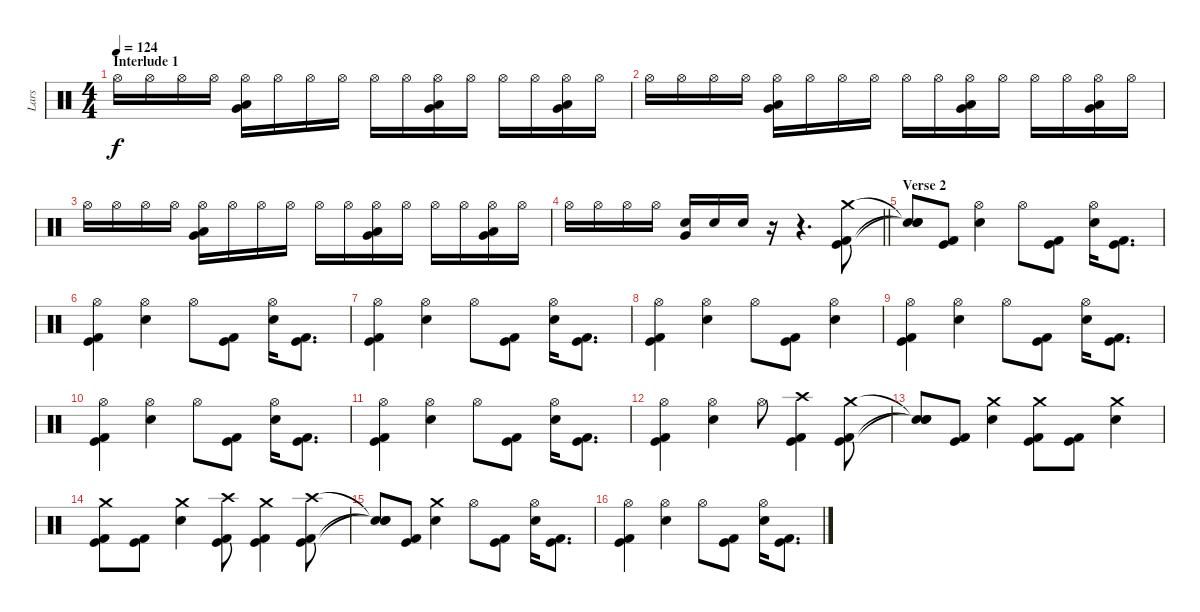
\track ("Lars" "Lars") {instrument percussion}
\staff {score}
\articulation defaults
\ts (4 4)
\section ("" "Interlude 1")
\tempo 124
\clef neutral
\ks c "Hi-Hat (open)".16{dy f} "Hi-Hat (open)".16 "Hi-Hat (open)".16 "Hi-Hat (open)".16
("Hi-Hat (open)" "Low Tom (hit)" "Very Low Tom (hit)").16 "Hi-Hat (open)".16 "Hi-Hat (open)".16 "Hi-Hat (open)".16 "Hi-Hat (open)".16 "Hi-Hat (open)".16 ("Hi-Hat (open)" "Low Tom (hit)" "Very Low Tom (hit)").16 "Hi-Hat (open)".16 "Hi-Hat (open)".16 "Hi-Hat (open)".16 ("Hi-Hat (open)" "Low Tom (hit)" "Very Low Tom (hit)").16 "Hi-Hat (open)".16 |
"Hi-Hat (open)".16 "Hi-Hat (open)".16 "Hi-Hat (open)".16 "Hi-Hat (open)".16 ("Hi-Hat (open)" "Low Tom (hit)" "Very Low Tom (hit)").16 "Hi-Hat (open)".16 "Hi-Hat (open)".16 "Hi-Hat (open)".16 "Hi-Hat (open)".16 "Hi-Hat (open)".16 ("Hi-Hat (open)" "Low Tom (hit)" "Very Low Tom (hit)").16 "Hi-Hat (open)".16 "Hi-Hat (open)".16 "Hi-Hat (open)".16 ("Hi-Hat (open)" "Low Tom (hit)" "Very Low Tom (hit)").16 "Hi-Hat (open)".16 |
"Hi-Hat (open)".16 "Hi-Hat (open)".16 "Hi-Hat (open)".16 "Hi-Hat (open)".16 ("Hi-Hat (open)" "Low Tom (hit)" "Very Low Tom (hit)").16 "Hi-Hat (open)".16 "Hi-Hat (open)".16 "Hi-Hat (open)".16 "Hi-Hat (open)".16 "Hi-Hat (open)".16 ("Hi-Hat (open)" "Low Tom (hit)" "Very Low Tom (hit)").16 "Hi-Hat (open)".16 "Hi-Hat (open)".16 "Hi-Hat (open)".16 ("Hi-Hat (open)" "Low Tom (hit)" "Very Low Tom (hit)").16 "Hi-Hat (open)".16 |
\barLineRight lightlight "Hi-Hat (open)".16 "Hi-Hat (open)".16 "Hi-Hat (open)".16 "Hi-Hat (open)".16
("Electric Snare (hit)" "Very Low Tom (hit)").16 "Electric Snare (hit)".16 "Electric Snare (hit)".16 r.16 r.4{d} ("Crash medium (hit)" "Kick (hit)" "Kick (hit) 2").8 |
\section ("" "Verse 2")
("Snare (hit)"{t} "Snare (hit)"{t} "Snare (hit)"{t}).8 ("Kick (hit)" "Kick (hit) 2").8 ("Hi-Hat (open)" "Electric Snare (hit)").4 "Hi-Hat (open)".8 ("Kick (hit)" "Kick (hit) 2").8 ("Hi-Hat (open)" "Electric Snare (hit)").16 ("Kick (hit)" "Kick (hit) 2").8{d} |
("Hi-Hat (open)" "Kick (hit)" "Kick (hit) 2").4 ("Hi-Hat (open)" "Electric Snare (hit)").4 "Hi-Hat (open)".8 ("Kick (hit)" "Kick (hit) 2").8 ("Hi-Hat (open)" "Electric Snare (hit)").16 ("Kick (hit)" "Kick (hit) 2").8{d} |
("Hi-Hat (open)" "Kick (hit)" "Kick (hit) 2").4 ("Hi-Hat (open)" "Electric Snare (hit)").4 "Hi-Hat (open)".8 ("Kick (hit)" "Kick (hit) 2").8 ("Hi-Hat (open)" "Electric Snare (hit)").16 ("Kick (hit)" "Kick (hit) 2").8{d} |
("Hi-Hat (open)" "Kick (hit)" "Kick (hit) 2").4 ("Hi-Hat (open)" "Electric Snare (hit)").4 "Hi-Hat (open)".8 ("Kick (hit)" "Kick (hit) 2").8 ("Hi-Hat (open)" "Electric Snare (hit)").4 |
("Hi-Hat (open)" "Kick (hit)" "Kick (hit) 2").4 ("Hi-Hat (open)" "Electric Snare (hit)").4 "Hi-Hat (open)".8 ("Kick (hit)" "Kick (hit) 2").8 ("Hi-Hat (open)" "Electric Snare (hit)").16 ("Kick (hit)" "Kick (hit) 2").8{d} |
("Hi-Hat (open)" "Kick (hit)" "Kick (hit) 2").4 ("Hi-Hat (open)" "Electric Snare (hit)").4 "Hi-Hat (open)".8 ("Kick (hit)" "Kick (hit) 2").8 ("Hi-Hat (open)" "Electric Snare (hit)").16 ("Kick (hit)" "Kick (hit) 2").8{d} |
("Hi-Hat (open)" "Kick (hit)" "Kick (hit) 2").4 ("Hi-Hat (open)" "Electric Snare (hit)").4 "Hi-Hat (open)".8 ("Kick (hit)" "Kick (hit) 2").8 ("Hi-Hat (open)" "Electric Snare (hit)").16 ("Kick (hit)" "Kick (hit) 2").8{d} |
("Hi-Hat (open)" "Kick (hit)" "Kick (hit) 2").4 ("Hi-Hat (open)" "Electric Snare (hit)").4 "Hi-Hat (open)".8 ("Crash high (hit)" "Kick (hit)" "Kick (hit) 2").4 ("Crash medium (hit)" "Kick (hit)" "Kick (hit) 2").8 |
("Snare (hit)"{t} "Snare (hit)"{t} "Snare (hit)"{t}).8 ("Kick (hit)" "Kick (hit) 2").8 ("Crash medium (hit)" "Electric Snare (hit)").4 ("Crash medium (hit)" "Kick (hit)" "Kick (hit) 2").8 ("Kick (hit)" "Kick (hit) 2").8 ("Crash medium (hit)" "Electric Snare (hit)").4 |
("Crash medium (hit)" "Kick (hit)" "Kick (hit) 2").8 ("Kick (hit)" "Kick (hit) 2").8 ("Crash medium (hit)" "Electric Snare (hit)").4 ("Crash high (hit)" "Kick (hit)" "Kick (hit) 2").8 ("Crash medium (hit)" "Kick (hit)" "Kick (hit) 2").4 ("Crash high (hit)" "Kick (hit)" "Kick (hit) 2").8 |
("Snare (hit)"{t} "Snare (hit)"{t} "Snare (hit)"{t}).8 ("Kick (hit)" "Kick (hit) 2").8 ("Crash medium (hit)" "Electric Snare (hit)").4 "Hi-Hat (open)".8 ("Kick (hit)" "Kick (hit) 2").8 ("Hi-Hat (open)" "Electric Snare (hit)").16 ("Kick (hit)" "Kick (hit) 2").8{d} |
("Hi-Hat (open)" "Kick (hit)" "Kick (hit) 2").4 ("Hi-Hat (open)" "Electric Snare (hit)").4 "Hi-Hat (open)".8 ("Kick (hit)" "Kick (hit) 2").8 ("Hi-Hat (open)" "Electric Snare (hit)").16 ("Kick (hit)" "Kick (hit) 2").8{d}
